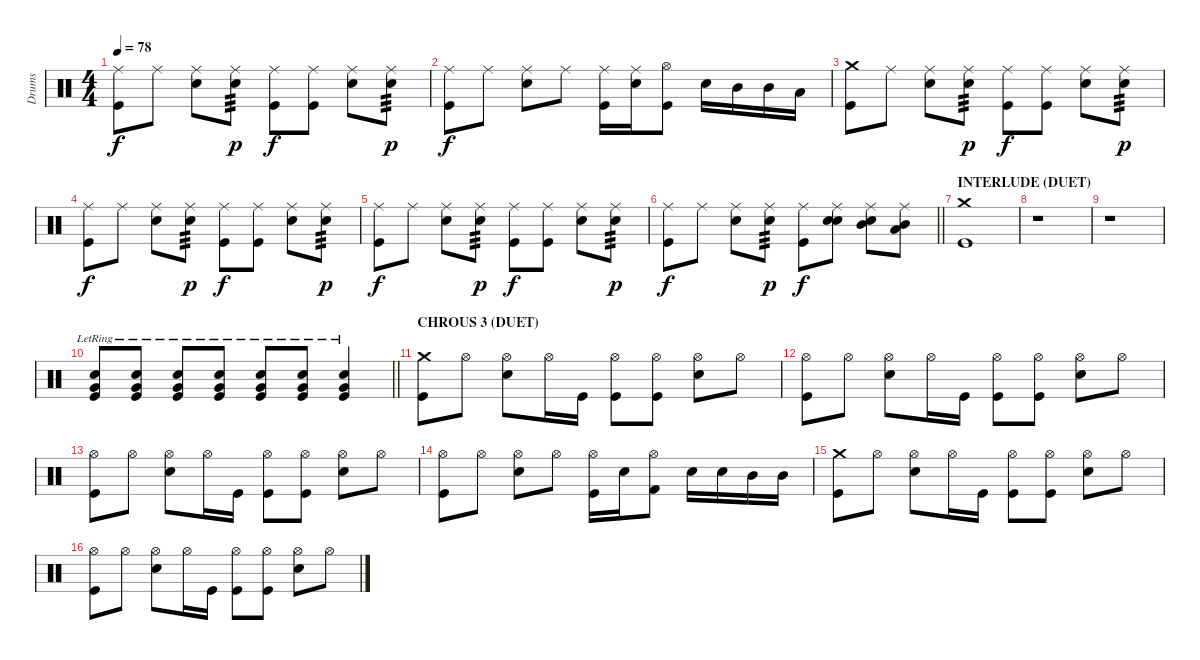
\track ("Drums" "Drums") {instrument percussion}
\staff {score}
\articulation defaults
\ts (4 4)
\tempo 78
\clef neutral
\ks c
("Ride (middle)" "Kick (hit)").8{dy f} "Ride (middle)".8 ("Ride (middle)" "Snare (hit) 2").8 ("Ride (middle)" "Snare (hit) 2").8{tp 3 dy p} ("Ride (middle)" "Kick (hit)").8{dy f} ("Ride (middle)" "Kick (hit)").8 ("Ride (middle)" "Snare (hit) 2").8 ("Ride (middle)" "Snare (hit) 2").8{tp 3 dy p} |
("Ride (middle)" "Kick (hit)").8{dy f} "Ride (middle)".8 ("Ride (middle)" "Snare (hit) 2").8 "Ride (middle)".8 ("Ride (middle)" "Kick (hit)").16 ("Ride (middle)" "Snare (hit) 2").16 ("Hi-Hat (open)" "Kick (hit)").8 "Snare (hit) 2".16 "Mid Tom (hit)".16 "Mid Tom (hit)".16 "Low Tom (hit)".16 |
("Crash medium (hit)" "Kick (hit)").8 "Ride (middle)".8 ("Ride (middle)" "Snare (hit) 2").8 ("Ride (middle)" "Snare (hit) 2").8{tp 3 dy p} ("Ride (middle)" "Kick (hit)").8{dy f} ("Ride (middle)" "Kick (hit)").8 ("Ride (middle)" "Snare (hit) 2").8 ("Ride (middle)" "Snare (hit) 2").8{tp 3 dy p} |
("Ride (middle)" "Kick (hit)").8{dy f} "Ride (middle)".8 ("Ride (middle)" "Snare (hit) 2").8 ("Ride (middle)" "Snare (hit) 2").8{tp 3 dy p} ("Ride (middle)" "Kick (hit)").8{dy f} ("Ride (middle)" "Kick (hit)").8 ("Ride (middle)" "Snare (hit) 2").8 ("Ride (middle)" "Snare (hit) 2").8{tp 3 dy p} |
("Ride (middle)" "Kick (hit)").8{dy f} "Ride (middle)".8 ("Ride (middle)" "Snare (hit) 2").8 ("Ride (middle)" "Snare (hit) 2").8{tp 3 dy p} ("Ride (middle)" "Kick (hit)").8{dy f} ("Ride (middle)" "Kick (hit)").8 ("Ride (middle)" "Snare (hit) 2").8 ("Ride (middle)" "Snare (hit) 2").8{tp 3 dy p} |
\barLineRight lightlight
("Ride (middle)" "Kick (hit)").8{dy f} "Ride (middle)".8 ("Ride (middle)" "Snare (hit) 2").8 ("Ride (middle)" "Snare (hit) 2").8{tp 3 dy p} ("Ride (middle)" "Kick (hit)").8{dy f} ("Ride (middle)" "Snare (hit) 2" "Snare (hit) 2").8 ("Ride (middle)" "Snare (hit) 2" "Mid Tom (hit)").8 ("Ride (middle)" "Mid Tom (hit)" "Low Tom (hit)").8 |
\section ("" "INTERLUDE (DUET)")
("Kick (hit)" "Crash medium (hit)").1 |
r.1 |
r.1 |
\barLineRight lightlight
("Kick (hit)"{lr} "Snare (hit) 2"{lr} "Very Low Tom (hit)"{lr}).8{volume 16} ("Kick (hit)"{lr} "Snare (hit) 2"{lr} "Very Low Tom (hit)"{lr}).8 ("Kick (hit)"{lr} "Snare (hit) 2"{lr} "Very Low Tom (hit)"{lr}).8 ("Kick (hit)"{lr} "Snare (hit) 2"{lr} "Very Low Tom (hit)"{lr}).8 ("Kick (hit)"{lr} "Snare (hit) 2"{lr} "Very Low Tom (hit)"{lr}).8 ("Kick (hit)"{lr} "Snare (hit) 2"{lr} "Very Low Tom (hit)"{lr}).8 ("Kick (hit)"{lr} "Snare (hit) 2"{lr} "Very Low Tom (hit)"{lr}).4 |
\section ("" "CHROUS 3 (DUET)")
("Crash medium (hit)" "Kick (hit)").8 "Hi-Hat (open)".8 ("Hi-Hat (open)" "Snare (hit) 2").8 "Hi-Hat (open)".16 "Kick (hit)".16 ("Hi-Hat (open)" "Kick (hit)").8 ("Hi-Hat (open)" "Kick (hit)").8 ("Hi-Hat (open)" "Snare (hit) 2").8 "Hi-Hat (open)".8 |
("Hi-Hat (open)" "Kick (hit)").8 "Hi-Hat (open)".8 ("Hi-Hat (open)" "Snare (hit) 2").8 "Hi-Hat (open)".16 "Kick (hit)".16 ("Hi-Hat (open)" "Kick (hit)").8 ("Hi-Hat (open)" "Kick (hit)").8 ("Hi-Hat (open)" "Snare (hit) 2").8 "Hi-Hat (open)".8 |
("Hi-Hat (open)" "Kick (hit)").8 "Hi-Hat (open)".8 ("Hi-Hat (open)" "Snare (hit) 2").8 "Hi-Hat (open)".16 "Kick (hit)".16 ("Hi-Hat (open)" "Kick (hit)").8 ("Hi-Hat (open)" "Kick (hit)").8 ("Hi-Hat (open)" "Snare (hit) 2").8 "Hi-Hat (open)".8 |
("Hi-Hat (open)" "Kick (hit)").8 "Hi-Hat (open)".8 ("Hi-Hat (open)" "Snare (hit) 2").8 "Hi-Hat (open)".8 ("Kick (hit)" "Hi-Hat (open)").16 "Snare (hit) 2".16 ("Hi-Hat (open)" "Kick (hit) 2").8 "Snare (hit) 2".16 "Snare (hit) 2".16 "Mid Tom (hit)".16 "Mid Tom (hit)".16 |
("Crash medium (hit)" "Kick (hit)").8 "Hi-Hat (open)".8 ("Hi-Hat (open)" "Snare (hit) 2").8 "Hi-Hat (open)".16 "Kick (hit)".16 ("Hi-Hat (open)" "Kick (hit)").8 ("Hi-Hat (open)" "Kick (hit)").8 ("Hi-Hat (open)" "Snare (hit) 2").8 "Hi-Hat (open)".8 |
("Hi-Hat (open)" "Kick (hit)").8 "Hi-Hat (open)".8 ("Hi-Hat (open)" "Snare (hit) 2").8 "Hi-Hat (open)".16 "Kick (hit)".16 ("Hi-Hat (open)" "Kick (hit)").8 ("Hi-Hat (open)" "Kick (hit)").8 ("Hi-Hat (open)" "Snare (hit) 2").8 "Hi-Hat (open)".8
